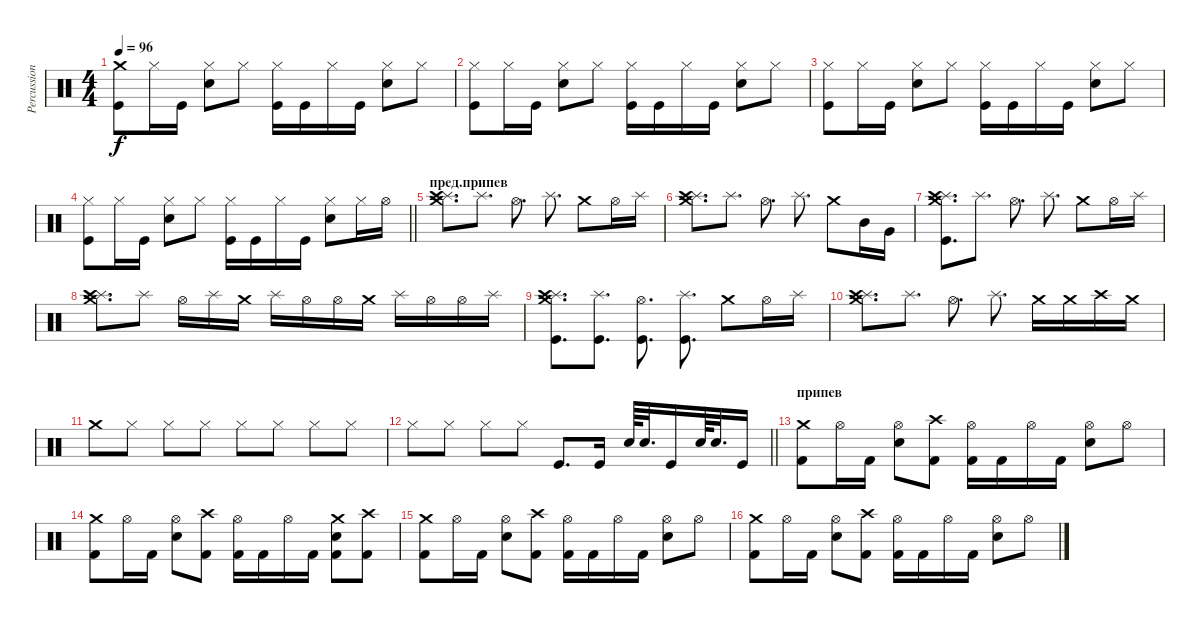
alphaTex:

\track ("Percussion" "Percussion") {instrument percussion}
\staff {score}
\articulation defaults
\ts (4 4)
\tempo 96
\clef neutral
\ks c
("Crash medium (hit)" "Kick (hit)").8{dy f} "Hi-Hat (closed)".16 "Kick (hit)".16 ("Hi-Hat (closed)" "Snare (hit) 2").8 "Hi-Hat (closed)".8 ("Hi-Hat (closed)" "Kick (hit)").16 "Kick (hit)".16 "Hi-Hat (closed)".16 "Kick (hit)".16 ("Hi-Hat (closed)" "Snare (hit) 2").8 "Hi-Hat (closed)".8 |
("Hi-Hat (closed)" "Kick (hit)").8 "Hi-Hat (closed)".16 "Kick (hit)".16 ("Hi-Hat (closed)" "Snare (hit) 2").8 "Hi-Hat (closed)".8 ("Hi-Hat (closed)" "Kick (hit)").16 "Kick (hit)".16 "Hi-Hat (closed)".16 "Kick (hit)".16 ("Hi-Hat (closed)" "Snare (hit) 2").8 "Hi-Hat (closed)".8 |
("Hi-Hat (closed)" "Kick (hit)").8 "Hi-Hat (closed)".16 "Kick (hit)".16 ("Hi-Hat (closed)" "Snare (hit) 2").8 "Hi-Hat (closed)".8 ("Hi-Hat (closed)" "Kick (hit)").16 "Kick (hit)".16 "Hi-Hat (closed)".16 "Kick (hit)".16 ("Hi-Hat (closed)" "Snare (hit) 2").8 "Hi-Hat (closed)".8 |
\barLineRight lightlight
("Hi-Hat (closed)" "Kick (hit)").8 "Hi-Hat (closed)".16 "Kick (hit)".16 ("Hi-Hat (closed)" "Snare (hit) 2").8 "Hi-Hat (closed)".8 ("Hi-Hat (closed)" "Kick (hit)").16 "Kick (hit)".16 "Hi-Hat (closed)".16 "Kick (hit)".16 ("Hi-Hat (closed)" "Snare (hit) 2").8 "Hi-Hat (closed)".16 "Hi-Hat (open)".16 |
\section ("" "пред.припев")
("Splash (hit)" "Crash medium (hit)" "Crash high (hit)").8{d} "Splash (hit)".8{d} "Hi-Hat (open)".8{d} "Splash (hit)".8{d} "Crash medium (hit)".8 "Hi-Hat (open)".16 "Splash (hit)".16 |
("Splash (hit)" "Crash medium (hit)" "Crash high (hit)").8{d} "Splash (hit)".8{d} "Hi-Hat (open)".8{d} "Splash (hit)".8{d} "Crash medium (hit)".8 "Mid Tom (hit)".16 "Very Low Tom (hit)".16 |
("Splash (hit)" "Crash medium (hit)" "Crash high (hit)" "Kick (hit)").8{d} "Splash (hit)".8{d} "Hi-Hat (open)".8{d} "Splash (hit)".8{d} "Crash medium (hit)".8 "Hi-Hat (open)".16 "Splash (hit)".16 |
("Splash (hit)" "Crash medium (hit)" "Crash high (hit)").8{d} "Splash (hit)".8 "Hi-Hat (open)".16 "Splash (hit)".16 "Crash medium (hit)".16 "Splash (hit)".16 "Hi-Hat (open)".16 "Hi-Hat (open)".16 "Crash medium (hit)".16 "Splash (hit)".16 "Hi-Hat (open)".16 "Hi-Hat (open)".16 "Splash (hit)".16 |
("Splash (hit)" "Crash medium (hit)" "Crash high (hit)" "Kick (hit)").8{d} ("Splash (hit)" "Kick (hit)").8{d} ("Hi-Hat (open)" "Kick (hit)").8{d} ("Splash (hit)" "Kick (hit)").8{d} "Crash medium (hit)".8 "Hi-Hat (open)".16 "Splash (hit)".16 |
("Splash (hit)" "Crash medium (hit)" "Crash high (hit)").8{d} "Splash (hit)".8{d} "Hi-Hat (open)".8{d} "Splash (hit)".8{d} "Crash medium (hit)".16 "Crash medium (hit)".16 "Crash high (hit)".16 "Crash medium (hit)".16 |
"Crash medium (hit)".8 "Hi-Hat (closed)".8 "Hi-Hat (closed)".8 "Hi-Hat (closed)".8 "Hi-Hat (closed)".8 "Hi-Hat (closed)".8 "Hi-Hat (closed)".8 "Hi-Hat (closed)".8 |
\barLineRight lightlight "Hi-Hat (closed)".8 "Hi-Hat (closed)".8 "Hi-Hat (closed)".8 "Hi-Hat (closed)".8 "Kick (hit)".8{d} "Kick (hit)".16 "Snare (hit) 2".64 "Snare (hit) 2".32{d} "Kick (hit)".16 "Snare (hit) 2".64 "Snare (hit) 2".32{d} "Kick (hit)".16
|
\section ("" "припев")
("Crash medium (hit)" "Kick (hit) 2").8 "Hi-Hat (open)".16 "Kick (hit) 2".16 ("Hi-Hat (open)" "Electric Snare (hit)").8 ("Crash high (hit)" "Kick (hit) 2").8 ("Hi-Hat (open)" "Kick (hit) 2").16 "Kick (hit) 2".16 "Hi-Hat (open)".16 "Kick (hit) 2".16 ("Hi-Hat (open)" "Electric Snare (hit)").8 "Hi-Hat (open)".8 |
("Crash medium (hit)" "Kick (hit) 2").8 "Hi-Hat (open)".16 "Kick (hit) 2".16 ("Hi-Hat (open)" "Electric Snare (hit)").8 ("Crash high (hit)" "Kick (hit) 2").8 ("Hi-Hat (open)" "Kick (hit) 2").16 "Kick (hit) 2".16 "Hi-Hat (open)".16 "Kick (hit) 2".16 ("Crash medium (hit)" "Electric Snare (hit)" "Kick (hit) 2").8 ("Crash high (hit)" "Kick (hit) 2").8 |
("Crash medium (hit)" "Kick (hit) 2").8 "Hi-Hat (open)".16 "Kick (hit) 2".16 ("Hi-Hat (open)" "Electric Snare (hit)").8 ("Crash high (hit)" "Kick (hit) 2").8 ("Hi-Hat (open)" "Kick (hit) 2").16 "Kick (hit) 2".16 "Hi-Hat (open)".16 "Kick (hit) 2".16 ("Hi-Hat (open)" "Electric Snare (hit)").8 "Hi-Hat (open)".8 |
("Crash medium (hit)" "Kick (hit) 2").8 "Hi-Hat (open)".16 "Kick (hit) 2".16 ("Hi-Hat (open)" "Electric Snare (hit)").8 ("Crash high (hit)" "Kick (hit) 2").8 ("Hi-Hat (open)" "Kick (hit) 2").16 "Kick (hit) 2".16 "Hi-Hat (open)".16 "Kick (hit) 2".16 ("Hi-Hat (open)" "Electric Snare (hit)").8 "Hi-Hat (open)".8
